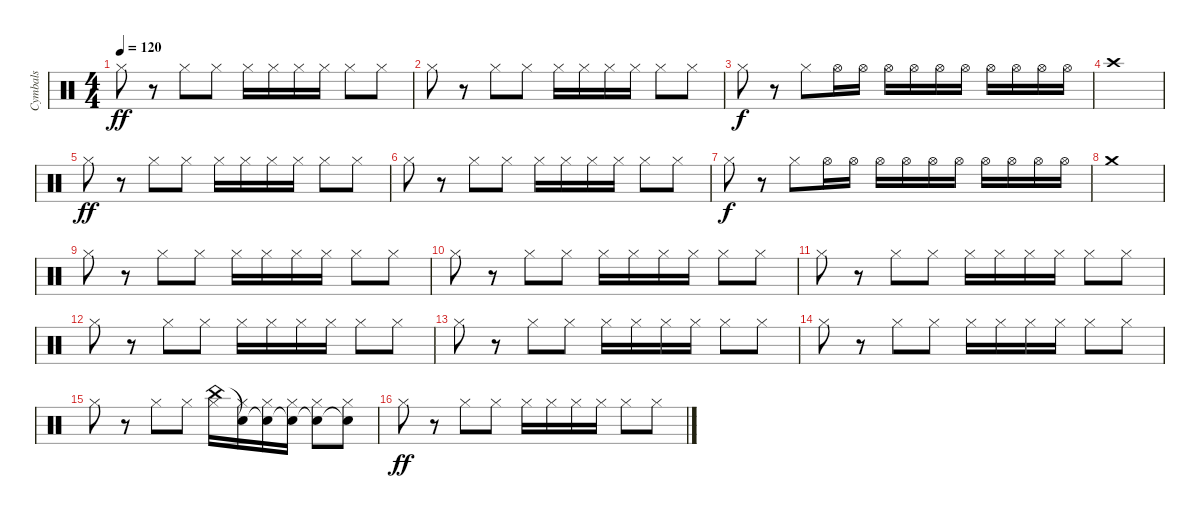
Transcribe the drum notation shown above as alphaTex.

\track ("Cymbals" "Cymbals") {instrument percussion}
\staff {score}
\articulation defaults
\ts (4 4)
\tempo 120
\clef neutral
\ks c "Hi-Hat (closed)".8{dy ff}
r.8 "Hi-Hat (closed)".8 "Hi-Hat (closed)".8 "Hi-Hat (closed)".16 "Hi-Hat (closed)".16 "Hi-Hat (closed)".16 "Hi-Hat (closed)".16 "Hi-Hat (closed)".8 "Hi-Hat (closed)".8 |
"Hi-Hat (closed)".8 r.8 "Hi-Hat (closed)".8 "Hi-Hat (closed)".8 "Hi-Hat (closed)".16 "Hi-Hat (closed)".16 "Hi-Hat (closed)".16 "Hi-Hat (closed)".16 "Hi-Hat (closed)".8 "Hi-Hat (closed)".8 |
"Hi-Hat (closed)".8{dy f} r.8 "Hi-Hat (closed)".8 "Hi-Hat (open)".16 "Hi-Hat (open)".16 "Hi-Hat (open)".16 "Hi-Hat (open)".16 "Hi-Hat (open)".16 "Hi-Hat (open)".16 "Hi-Hat (open)".16 "Hi-Hat (open)".16 "Hi-Hat (open)".16 "Hi-Hat (open)".16 |
"Crash high (hit)".1 |
"Hi-Hat (closed)".8{dy ff} r.8 "Hi-Hat (closed)".8 "Hi-Hat (closed)".8 "Hi-Hat (closed)".16 "Hi-Hat (closed)".16 "Hi-Hat (closed)".16 "Hi-Hat (closed)".16 "Hi-Hat (closed)".8 "Hi-Hat (closed)".8 |
"Hi-Hat (closed)".8 r.8 "Hi-Hat (closed)".8 "Hi-Hat (closed)".8 "Hi-Hat (closed)".16 "Hi-Hat (closed)".16 "Hi-Hat (closed)".16 "Hi-Hat (closed)".16 "Hi-Hat (closed)".8 "Hi-Hat (closed)".8 |
"Hi-Hat (closed)".8{dy f} r.8 "Hi-Hat (closed)".8 "Hi-Hat (open)".16 "Hi-Hat (open)".16 "Hi-Hat (open)".16 "Hi-Hat (open)".16 "Hi-Hat (open)".16 "Hi-Hat (open)".16 "Hi-Hat (open)".16 "Hi-Hat (open)".16 "Hi-Hat (open)".16 "Hi-Hat (open)".16 |
"Crash medium (hit)".1 |
"Hi-Hat (closed)".8 r.8 "Hi-Hat (closed)".8 "Hi-Hat (closed)".8 "Hi-Hat (closed)".16 "Hi-Hat (closed)".16 "Hi-Hat (closed)".16 "Hi-Hat (closed)".16 "Hi-Hat (closed)".8 "Hi-Hat (closed)".8 |
"Hi-Hat (closed)".8 r.8 "Hi-Hat (closed)".8 "Hi-Hat (closed)".8 "Hi-Hat (closed)".16 "Hi-Hat (closed)".16 "Hi-Hat (closed)".16 "Hi-Hat (closed)".16 "Hi-Hat (closed)".8 "Hi-Hat (closed)".8 |
"Hi-Hat (closed)".8 r.8 "Hi-Hat (closed)".8 "Hi-Hat (closed)".8 "Hi-Hat (closed)".16 "Hi-Hat (closed)".16 "Hi-Hat (closed)".16 "Hi-Hat (closed)".16 "Hi-Hat (closed)".8 "Hi-Hat (closed)".8 |
"Hi-Hat (closed)".8 r.8 "Hi-Hat (closed)".8 "Hi-Hat (closed)".8 "Hi-Hat (closed)".16 "Hi-Hat (closed)".16 "Hi-Hat (closed)".16 "Hi-Hat (closed)".16 "Hi-Hat (closed)".8 "Hi-Hat (closed)".8 |
"Hi-Hat (closed)".8 r.8 "Hi-Hat (closed)".8 "Hi-Hat (closed)".8 "Hi-Hat (closed)".16 "Hi-Hat (closed)".16 "Hi-Hat (closed)".16 "Hi-Hat (closed)".16 "Hi-Hat (closed)".8 "Hi-Hat (closed)".8 |
"Hi-Hat (closed)".8 r.8 "Hi-Hat (closed)".8 "Hi-Hat (closed)".8 "Hi-Hat (closed)".16 "Hi-Hat (closed)".16 "Hi-Hat (closed)".16 "Hi-Hat (closed)".16 "Hi-Hat (closed)".8 "Hi-Hat (closed)".8 |
"Hi-Hat (closed)".8 r.8 "Hi-Hat (closed)".8 "Hi-Hat (closed)".8 ("China (hit)" "Hi-Hat (closed)").16 ("Snare (hit)"{t} "Hi-Hat (closed)").16 ("Snare (hit)"{t} "Hi-Hat (closed)").16 ("Snare (hit)"{t} "Hi-Hat (closed)").16 ("Snare (hit)"{t} "Hi-Hat (closed)").8 ("Snare (hit)"{t} "Hi-Hat (closed)").8 |
"Hi-Hat (closed)".8{dy ff} r.8 "Hi-Hat (closed)".8 "Hi-Hat (closed)".8 "Hi-Hat (closed)".16 "Hi-Hat (closed)".16 "Hi-Hat (closed)".16 "Hi-Hat (closed)".16 "Hi-Hat (closed)".8 "Hi-Hat (closed)".8
